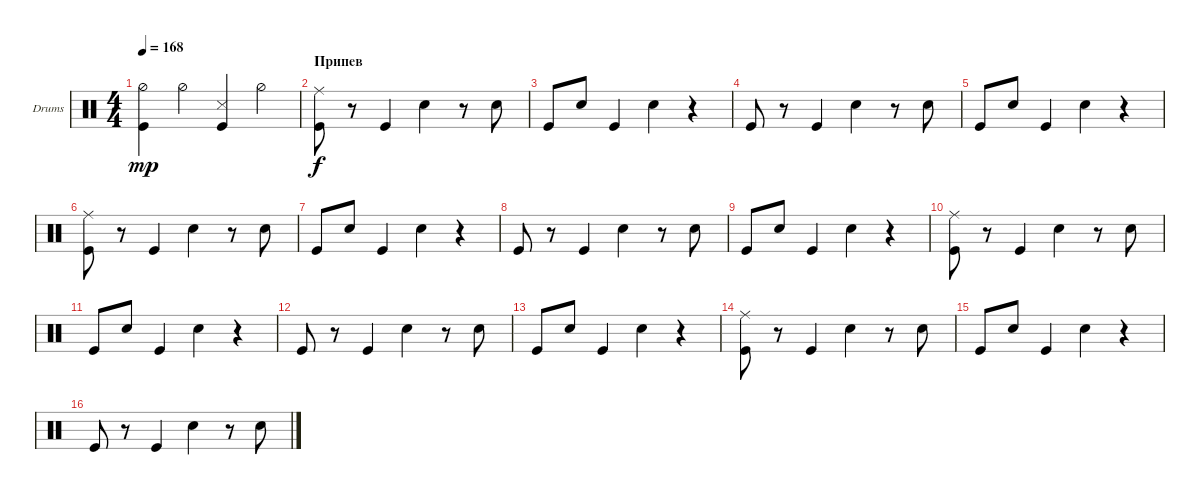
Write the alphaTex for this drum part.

\defaultSystemsLayout 4
\bracketExtendMode groupsimilarinstruments
\firstSystemTrackNameOrientation horizontal
\otherSystemsTrackNameOrientation horizontal
\track ("Е. Кулаков" "Drums") {instrument percussion}
\staff {score}
\articulation defaults
\ts (4 4)
\tempo 168
\clef neutral
\scale
0.333333
\ks c
("Hi-Hat (half)" "Kick (hit)").4{dy mp} "Hi-Hat (half)".4 ("Snare (side stick) 3" "Kick (hit)").4 "Hi-Hat (half)".4 |
\section ("" "Припев")
\scale
0.333333 ("Kick (hit)" "Ride (middle)").8{dy f} r.8 "Kick (hit)".4 "Snare (hit) 2".4 r.8 "Snare (hit) 2".8 |
\scale
0.333333 "Kick (hit)".8 "Snare (hit) 2".8 "Kick (hit)".4 "Snare (hit) 2".4 r.4 |
\scale
0.333333 "Kick (hit)".8 r.8 "Kick (hit)".4 "Snare (hit) 2".4 r.8 "Snare (hit) 2".8 |
\scale
0.333333 "Kick (hit)".8 "Snare (hit) 2".8 "Kick (hit)".4 "Snare (hit) 2".4 r.4 |
\scale
0.333333 ("Kick (hit)" "Ride (middle)").8 r.8 "Kick (hit)".4 "Snare (hit) 2".4 r.8 "Snare (hit) 2".8 |
\scale
0.333333 "Kick (hit)".8 "Snare (hit) 2".8 "Kick (hit)".4 "Snare (hit) 2".4 r.4 |
\scale
0.333333 "Kick (hit)".8 r.8 "Kick (hit)".4 "Snare (hit) 2".4 r.8 "Snare (hit) 2".8 |
\scale
0.333333 "Kick (hit)".8 "Snare (hit) 2".8 "Kick (hit)".4 "Snare (hit) 2".4 r.4 |
\scale
0.333333 ("Kick (hit)" "Ride (middle)").8 r.8 "Kick (hit)".4 "Snare (hit) 2".4 r.8 "Snare (hit) 2".8 |
\scale
0.333333 "Kick (hit)".8 "Snare (hit) 2".8 "Kick (hit)".4 "Snare (hit) 2".4 r.4 |
\scale
0.333333 "Kick (hit)".8 r.8 "Kick (hit)".4 "Snare (hit) 2".4 r.8 "Snare (hit) 2".8 |
\scale
0.333333 "Kick (hit)".8 "Snare (hit) 2".8 "Kick (hit)".4 "Snare (hit) 2".4 r.4 |
\scale
0.333333 ("Kick (hit)" "Ride (middle)").8 r.8 "Kick (hit)".4 "Snare (hit) 2".4 r.8 "Snare (hit) 2".8 |
\scale
0.333333 "Kick (hit)".8 "Snare (hit) 2".8 "Kick (hit)".4 "Snare (hit) 2".4 r.4 |
\scale
0.333333 "Kick (hit)".8 r.8 "Kick (hit)".4 "Snare (hit) 2".4 r.8 "Snare (hit) 2".8
